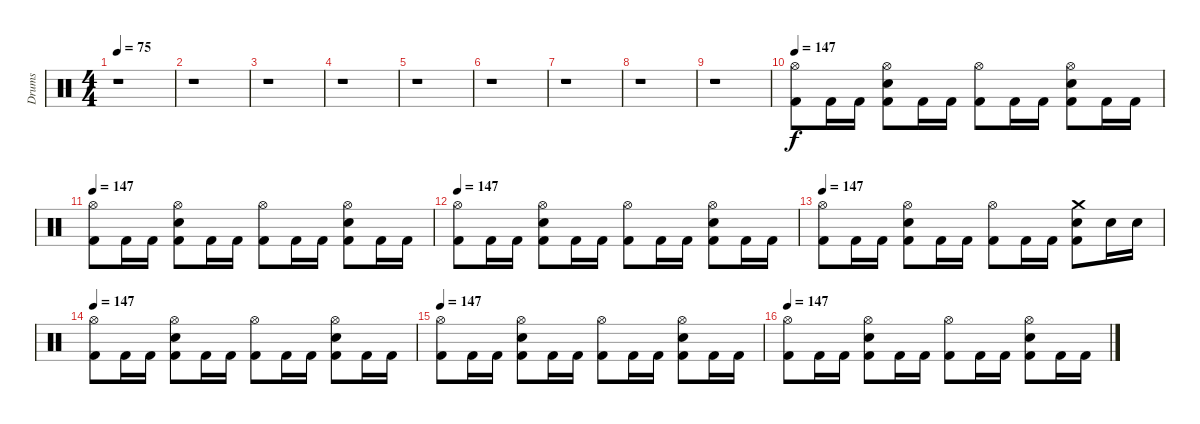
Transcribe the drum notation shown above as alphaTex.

\track ("Drums" "Drums") {instrument percussion}
\staff {score}
\articulation defaults
\ts (4 4)
\tempo 75
\clef neutral
\ks c
r.1{dy f} |
r.1 |
r.1 |
r.1 |
r.1 |
r.1 |
r.1 |
r.1 |
r.1 |
\tempo 147
("Hi-Hat (open)" "Kick (hit) 2").8 "Kick (hit) 2".16 "Kick (hit) 2".16 ("Hi-Hat (open)" "Electric Snare (hit)" "Kick (hit) 2").8 "Kick (hit) 2".16 "Kick (hit) 2".16 ("Hi-Hat (open)" "Kick (hit) 2").8 "Kick (hit) 2".16 "Kick (hit) 2".16 ("Hi-Hat (open)" "Electric Snare (hit)" "Kick (hit) 2").8 "Kick (hit) 2".16 "Kick (hit) 2".16 |
\tempo 147
("Hi-Hat (open)" "Kick (hit) 2").8 "Kick (hit) 2".16 "Kick (hit) 2".16 ("Hi-Hat (open)" "Electric Snare (hit)" "Kick (hit) 2").8 "Kick (hit) 2".16 "Kick (hit) 2".16 ("Hi-Hat (open)" "Kick (hit) 2").8 "Kick (hit) 2".16 "Kick (hit) 2".16 ("Hi-Hat (open)" "Electric Snare (hit)" "Kick (hit) 2").8 "Kick (hit) 2".16 "Kick (hit) 2".16 |
\tempo 147
("Hi-Hat (open)" "Kick (hit) 2").8 "Kick (hit) 2".16 "Kick (hit) 2".16 ("Hi-Hat (open)" "Electric Snare (hit)" "Kick (hit) 2").8 "Kick (hit) 2".16 "Kick (hit) 2".16 ("Hi-Hat (open)" "Kick (hit) 2").8 "Kick (hit) 2".16 "Kick (hit) 2".16 ("Hi-Hat (open)" "Electric Snare (hit)" "Kick (hit) 2").8 "Kick (hit) 2".16 "Kick (hit) 2".16 |
\tempo 147
("Hi-Hat (open)" "Kick (hit) 2").8 "Kick (hit) 2".16 "Kick (hit) 2".16 ("Hi-Hat (open)" "Electric Snare (hit)" "Kick (hit) 2").8 "Kick (hit) 2".16 "Kick (hit) 2".16 ("Hi-Hat (open)" "Kick (hit) 2").8 "Kick (hit) 2".16 "Kick (hit) 2".16 ("Crash medium (hit)" "Electric Snare (hit)" "Kick (hit) 2").8 "Electric Snare (hit)".16 "Electric Snare (hit)".16 |
\tempo 147
("Hi-Hat (open)" "Kick (hit) 2").8 "Kick (hit) 2".16 "Kick (hit) 2".16 ("Hi-Hat (open)" "Electric Snare (hit)" "Kick (hit) 2").8 "Kick (hit) 2".16 "Kick (hit) 2".16 ("Hi-Hat (open)" "Kick (hit) 2").8 "Kick (hit) 2".16 "Kick (hit) 2".16 ("Hi-Hat (open)" "Electric Snare (hit)" "Kick (hit) 2").8 "Kick (hit) 2".16 "Kick (hit) 2".16 |
\tempo 147
("Hi-Hat (open)" "Kick (hit) 2").8 "Kick (hit) 2".16 "Kick (hit) 2".16 ("Hi-Hat (open)" "Electric Snare (hit)" "Kick (hit) 2").8 "Kick (hit) 2".16 "Kick (hit) 2".16 ("Hi-Hat (open)" "Kick (hit) 2").8 "Kick (hit) 2".16 "Kick (hit) 2".16 ("Hi-Hat (open)" "Electric Snare (hit)" "Kick (hit) 2").8 "Kick (hit) 2".16 "Kick (hit) 2".16 |
\tempo 147
("Hi-Hat (open)" "Kick (hit) 2").8 "Kick (hit) 2".16 "Kick (hit) 2".16 ("Hi-Hat (open)" "Electric Snare (hit)" "Kick (hit) 2").8 "Kick (hit) 2".16 "Kick (hit) 2".16 ("Hi-Hat (open)" "Kick (hit) 2").8 "Kick (hit) 2".16 "Kick (hit) 2".16 ("Hi-Hat (open)" "Electric Snare (hit)" "Kick (hit) 2").8 "Kick (hit) 2".16 "Kick (hit) 2".16
